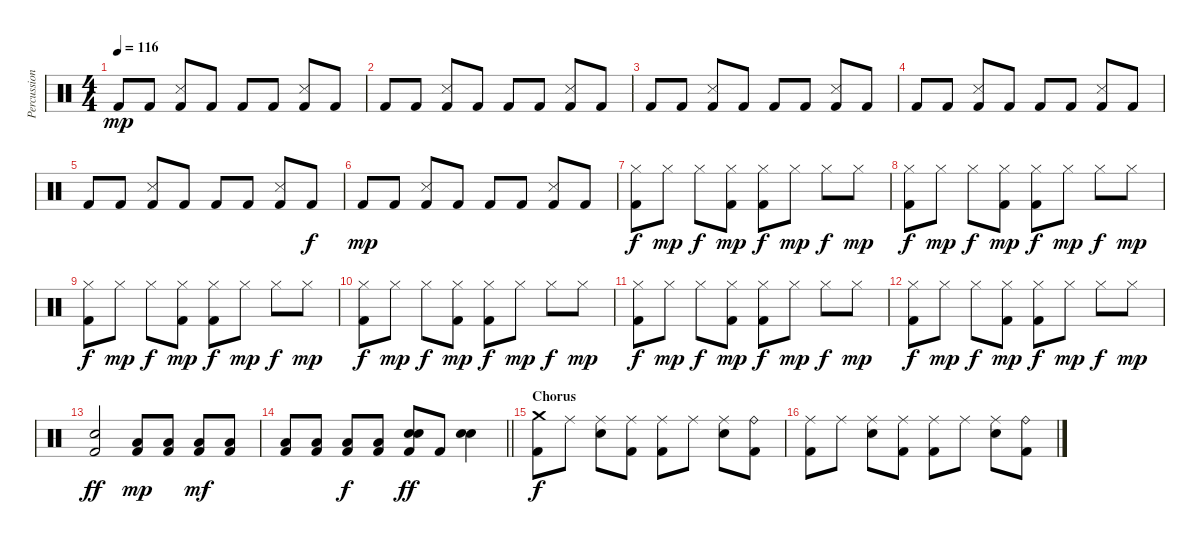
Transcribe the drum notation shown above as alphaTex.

\track ("Percussion" "Percussion") {instrument percussion}
\staff {score}
\articulation defaults
\ts (4 4)
\tempo 116
\clef neutral
\ks c "Kick (hit) 2".8{dy mp} "Kick (hit) 2".8
("Snare (side stick) 3" "Kick (hit) 2").8 "Kick (hit) 2".8 "Kick (hit) 2".8 "Kick (hit) 2".8 ("Snare (side stick) 3" "Kick (hit) 2").8 "Kick (hit) 2".8 |
"Kick (hit) 2".8 "Kick (hit) 2".8 ("Snare (side stick) 3" "Kick (hit) 2").8 "Kick (hit) 2".8 "Kick (hit) 2".8 "Kick (hit) 2".8 ("Snare (side stick) 3" "Kick (hit) 2").8 "Kick (hit) 2".8 |
"Kick (hit) 2".8 "Kick (hit) 2".8 ("Snare (side stick) 3" "Kick (hit) 2").8 "Kick (hit) 2".8 "Kick (hit) 2".8 "Kick (hit) 2".8 ("Snare (side stick) 3" "Kick (hit) 2").8 "Kick (hit) 2".8 |
"Kick (hit) 2".8 "Kick (hit) 2".8 ("Snare (side stick) 3" "Kick (hit) 2").8 "Kick (hit) 2".8 "Kick (hit) 2".8 "Kick (hit) 2".8 ("Snare (side stick) 3" "Kick (hit) 2").8 "Kick (hit) 2".8 |
"Kick (hit) 2".8 "Kick (hit) 2".8 ("Snare (side stick) 3" "Kick (hit) 2").8 "Kick (hit) 2".8 "Kick (hit) 2".8 "Kick (hit) 2".8 ("Snare (side stick) 3" "Kick (hit) 2").8 "Kick (hit) 2".8{dy f} |
"Kick (hit) 2".8{dy mp} "Kick (hit) 2".8 ("Snare (side stick) 3" "Kick (hit) 2").8 "Kick (hit) 2".8 "Kick (hit) 2".8 "Kick (hit) 2".8 ("Snare (side stick) 3" "Kick (hit) 2").8 "Kick (hit) 2".8 |
("Hi-Hat (closed)" "Kick (hit) 2").8{dy f} "Hi-Hat (closed)".8{dy mp} "Hi-Hat (closed)".8{dy f} ("Hi-Hat (closed)" "Kick (hit) 2").8{dy mp} ("Hi-Hat (closed)" "Kick (hit) 2").8{dy f} "Hi-Hat (closed)".8{dy mp} "Hi-Hat (closed)".8{dy f} "Hi-Hat (closed)".8{dy mp} |
("Hi-Hat (closed)" "Kick (hit) 2").8{dy f} "Hi-Hat (closed)".8{dy mp} "Hi-Hat (closed)".8{dy f} ("Hi-Hat (closed)" "Kick (hit) 2").8{dy mp} ("Hi-Hat (closed)" "Kick (hit) 2").8{dy f} "Hi-Hat (closed)".8{dy mp} "Hi-Hat (closed)".8{dy f} "Hi-Hat (closed)".8{dy mp} |
("Hi-Hat (closed)" "Kick (hit) 2").8{dy f} "Hi-Hat (closed)".8{dy mp} "Hi-Hat (closed)".8{dy f} ("Hi-Hat (closed)" "Kick (hit) 2").8{dy mp} ("Hi-Hat (closed)" "Kick (hit) 2").8{dy f} "Hi-Hat (closed)".8{dy mp} "Hi-Hat (closed)".8{dy f} "Hi-Hat (closed)".8{dy mp} |
("Hi-Hat (closed)" "Kick (hit) 2").8{dy f} "Hi-Hat (closed)".8{dy mp} "Hi-Hat (closed)".8{dy f} ("Hi-Hat (closed)" "Kick (hit) 2").8{dy mp} ("Hi-Hat (closed)" "Kick (hit) 2").8{dy f} "Hi-Hat (closed)".8{dy mp} "Hi-Hat (closed)".8{dy f} "Hi-Hat (closed)".8{dy mp} |
("Hi-Hat (closed)" "Kick (hit) 2").8{dy f} "Hi-Hat (closed)".8{dy mp} "Hi-Hat (closed)".8{dy f} ("Hi-Hat (closed)" "Kick (hit) 2").8{dy mp} ("Hi-Hat (closed)" "Kick (hit) 2").8{dy f} "Hi-Hat (closed)".8{dy mp} "Hi-Hat (closed)".8{dy f} "Hi-Hat (closed)".8{dy mp} |
("Hi-Hat (closed)" "Kick (hit) 2").8{dy f} "Hi-Hat (closed)".8{dy mp} "Hi-Hat (closed)".8{dy f} ("Hi-Hat (closed)" "Kick (hit) 2").8{dy mp} ("Hi-Hat (closed)" "Kick (hit) 2").8{dy f} "Hi-Hat (closed)".8{dy mp} "Hi-Hat (closed)".8{dy f} "Hi-Hat (closed)".8{dy mp} |
("Snare (hit) 2" "Kick (hit) 2").2{dy ff} ("Low Floor Tom (hit)" "Kick (hit) 2").8{dy mp} ("Low Floor Tom (hit)" "Kick (hit) 2").8 ("Low Floor Tom (hit)" "Kick (hit) 2").8{dy mf} ("Low Floor Tom (hit)" "Kick (hit) 2").8 |
\barLineRight lightlight
("Low Floor Tom (hit)" "Kick (hit) 2").8 ("Low Floor Tom (hit)" "Kick (hit) 2").8 ("Low Floor Tom (hit)" "Kick (hit) 2").8{dy f} ("Low Floor Tom (hit)" "Kick (hit) 2").8 ("Snare (hit) 2" "Snare (hit) 2" "Kick (hit) 2").8{dy ff} "Kick (hit) 2".8 ("Snare (hit) 2" "Snare (hit) 2").4 |
\section ("" "Chorus")
("Crash medium (hit)" "Kick (hit) 2").8{dy f} "Ride (middle)".8 ("Ride (middle)" "Snare (hit) 2").8 ("Ride (middle)" "Kick (hit) 2").8 ("Ride (middle)" "Kick (hit) 2").8 "Ride (middle)".8 ("Ride (middle)" "Snare (hit) 2").8 ("Ride (bell)" "Kick (hit) 2").8 |
("Ride (middle)" "Kick (hit) 2").8 "Ride (middle)".8 ("Ride (middle)" "Snare (hit) 2").8 ("Ride (middle)" "Kick (hit) 2").8 ("Ride (middle)" "Kick (hit) 2").8 "Ride (middle)".8 ("Ride (middle)" "Snare (hit) 2").8 ("Ride (bell)" "Kick (hit) 2").8
